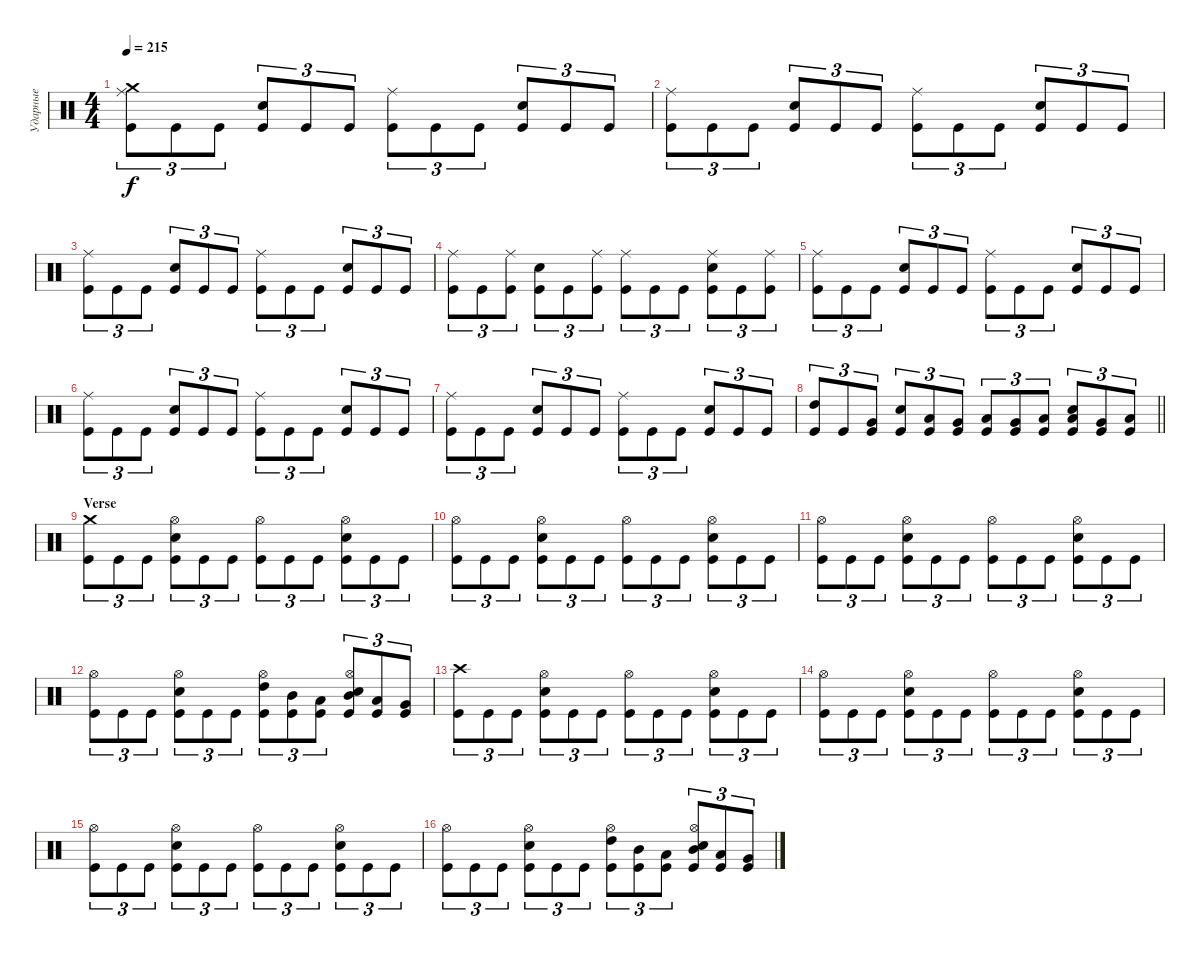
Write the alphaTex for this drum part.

\track ("Ударные" "Ударные") {instrument percussion}
\staff {score}
\articulation defaults
\ts (4 4)
\tempo 215
\clef neutral
\ks c
("Crash medium (hit)" "Ride (middle)" "Kick (hit)").8{tu (3 2) dy f} "Kick (hit)".8{tu (3 2)} "Kick (hit)".8{tu (3 2)} ("Electric Snare (hit)" "Kick (hit)").8{tu (3 2)} "Kick (hit)".8{tu (3 2)} "Kick (hit)".8{tu (3 2)} ("Ride (middle)" "Kick (hit)").8{tu (3 2)} "Kick (hit)".8{tu (3 2)} "Kick (hit)".8{tu (3 2)} ("Electric Snare (hit)" "Kick (hit)").8{tu (3 2)} "Kick (hit)".8{tu (3 2)} "Kick (hit)".8{tu (3 2)} |
("Ride (middle)" "Kick (hit)").8{tu (3 2)} "Kick (hit)".8{tu (3 2)} "Kick (hit)".8{tu (3 2)} ("Electric Snare (hit)" "Kick (hit)").8{tu (3 2)} "Kick (hit)".8{tu (3 2)} "Kick (hit)".8{tu (3 2)} ("Ride (middle)" "Kick (hit)").8{tu (3 2)} "Kick (hit)".8{tu (3 2)} "Kick (hit)".8{tu (3 2)} ("Electric Snare (hit)" "Kick (hit)").8{tu (3 2)} "Kick (hit)".8{tu (3 2)} "Kick (hit)".8{tu (3 2)} |
("Ride (middle)" "Kick (hit)").8{tu (3 2)} "Kick (hit)".8{tu (3 2)} "Kick (hit)".8{tu (3 2)} ("Electric Snare (hit)" "Kick (hit)").8{tu (3 2)} "Kick (hit)".8{tu (3 2)} "Kick (hit)".8{tu (3 2)} ("Ride (middle)" "Kick (hit)").8{tu (3 2)} "Kick (hit)".8{tu (3 2)} "Kick (hit)".8{tu (3 2)} ("Electric Snare (hit)" "Kick (hit)").8{tu (3 2)} "Kick (hit)".8{tu (3 2)} "Kick (hit)".8{tu (3 2)} |
("Ride (middle)" "Kick (hit)").8{tu (3 2)} "Kick (hit)".8{tu (3 2)} ("Ride (middle)" "Kick (hit)").8{tu (3 2)} ("Electric Snare (hit)" "Kick (hit)").8{tu (3 2)} "Kick (hit)".8{tu (3 2)} ("Ride (middle)" "Kick (hit)").8{tu (3 2)} ("Ride (middle)" "Kick (hit)").8{tu (3 2)} "Kick (hit)".8{tu (3 2)} "Kick (hit)".8{tu (3 2)} ("Ride (middle)" "Electric Snare (hit)" "Kick (hit)").8{tu (3 2)} "Kick (hit)".8{tu (3 2)} ("Ride (middle)" "Kick (hit)").8{tu (3 2)} |
("Ride (middle)" "Kick (hit)").8{tu (3 2)} "Kick (hit)".8{tu (3 2)} "Kick (hit)".8{tu (3 2)} ("Electric Snare (hit)" "Kick (hit)").8{tu (3 2)} "Kick (hit)".8{tu (3 2)} "Kick (hit)".8{tu (3 2)} ("Ride (middle)" "Kick (hit)").8{tu (3 2)} "Kick (hit)".8{tu (3 2)} "Kick (hit)".8{tu (3 2)} ("Electric Snare (hit)" "Kick (hit)").8{tu (3 2)} "Kick (hit)".8{tu (3 2)} "Kick (hit)".8{tu (3 2)} |
("Ride (middle)" "Kick (hit)").8{tu (3 2)} "Kick (hit)".8{tu (3 2)} "Kick (hit)".8{tu (3 2)} ("Electric Snare (hit)" "Kick (hit)").8{tu (3 2)} "Kick (hit)".8{tu (3 2)} "Kick (hit)".8{tu (3 2)} ("Ride (middle)" "Kick (hit)").8{tu (3 2)} "Kick (hit)".8{tu (3 2)} "Kick (hit)".8{tu (3 2)} ("Electric Snare (hit)" "Kick (hit)").8{tu (3 2)} "Kick (hit)".8{tu (3 2)} "Kick (hit)".8{tu (3 2)} |
("Ride (middle)" "Kick (hit)").8{tu (3 2)} "Kick (hit)".8{tu (3 2)} "Kick (hit)".8{tu (3 2)} ("Electric Snare (hit)" "Kick (hit)").8{tu (3 2)} "Kick (hit)".8{tu (3 2)} "Kick (hit)".8{tu (3 2)} ("Ride (middle)" "Kick (hit)").8{tu (3 2)} "Kick (hit)".8{tu (3 2)} "Kick (hit)".8{tu (3 2)} ("Electric Snare (hit)" "Kick (hit)").8{tu (3 2)} "Kick (hit)".8{tu (3 2)} "Kick (hit)".8{tu (3 2)} |
\barLineRight lightlight
("High Tom (hit)" "Kick (hit)").8{tu (3 2)} "Kick (hit)".8{tu (3 2)} ("Very Low Tom (hit)" "Kick (hit)").8{tu (3 2)} ("Electric Snare (hit)" "Kick (hit)").8{tu (3 2)} ("Low Tom (hit)" "Kick (hit)").8{tu (3 2)} ("Very Low Tom (hit)" "Kick (hit)").8{tu (3 2)} ("Low Tom (hit)" "Kick (hit)").8{tu (3 2)} ("Very Low Tom (hit)" "Kick (hit)").8{tu (3 2)} ("Low Floor Tom (hit)" "Kick (hit)").8{tu (3 2)} ("Low Tom (hit)" "Electric Snare (hit)" "Kick (hit)").8{tu (3 2)} ("Very Low Tom (hit)" "Kick (hit)").8{tu (3 2)} ("Low Floor Tom (hit)" "Kick (hit)").8{tu (3 2)} |
\section ("" "Verse")
("Crash medium (hit)" "Kick (hit)").8{tu (3 2)} "Kick (hit)".8{tu (3 2)} "Kick (hit)".8{tu (3 2)} ("Hi-Hat (open)" "Electric Snare (hit)" "Kick (hit)").8{tu (3 2)} "Kick (hit)".8{tu (3 2)} "Kick (hit)".8{tu (3 2)} ("Hi-Hat (open)" "Kick (hit)").8{tu (3 2)} "Kick (hit)".8{tu (3 2)} "Kick (hit)".8{tu (3 2)} ("Hi-Hat (open)" "Electric Snare (hit)" "Kick (hit)").8{tu (3 2)} "Kick (hit)".8{tu (3 2)} "Kick (hit)".8{tu (3 2)} |
("Hi-Hat (open)" "Kick (hit)").8{tu (3 2)} "Kick (hit)".8{tu (3 2)} "Kick (hit)".8{tu (3 2)} ("Hi-Hat (open)" "Electric Snare (hit)" "Kick (hit)").8{tu (3 2)} "Kick (hit)".8{tu (3 2)} "Kick (hit)".8{tu (3 2)} ("Hi-Hat (open)" "Kick (hit)").8{tu (3 2)} "Kick (hit)".8{tu (3 2)} "Kick (hit)".8{tu (3 2)} ("Hi-Hat (open)" "Electric Snare (hit)" "Kick (hit)").8{tu (3 2)} "Kick (hit)".8{tu (3 2)} "Kick (hit)".8{tu (3 2)} |
("Hi-Hat (open)" "Kick (hit)").8{tu (3 2)} "Kick (hit)".8{tu (3 2)} "Kick (hit)".8{tu (3 2)} ("Hi-Hat (open)" "Electric Snare (hit)" "Kick (hit)").8{tu (3 2)} "Kick (hit)".8{tu (3 2)} "Kick (hit)".8{tu (3 2)} ("Hi-Hat (open)" "Kick (hit)").8{tu (3 2)} "Kick (hit)".8{tu (3 2)} "Kick (hit)".8{tu (3 2)} ("Hi-Hat (open)" "Electric Snare (hit)" "Kick (hit)").8{tu (3 2)} "Kick (hit)".8{tu (3 2)} "Kick (hit)".8{tu (3 2)} |
("Hi-Hat (open)" "Kick (hit)").8{tu (3 2)} "Kick (hit)".8{tu (3 2)} "Kick (hit)".8{tu (3 2)} ("Hi-Hat (open)" "Electric Snare (hit)" "Kick (hit)").8{tu (3 2)} "Kick (hit)".8{tu (3 2)} "Kick (hit)".8{tu (3 2)} ("High Tom (hit)" "Hi-Hat (open)" "Kick (hit)").8{tu (3 2)} ("Mid Tom (hit)" "Kick (hit)").8{tu (3 2)} ("Low Tom (hit)" "Kick (hit)").8{tu (3 2)} ("Mid Tom (hit)" "Hi-Hat (open)" "Electric Snare (hit)" "Kick (hit)").8{tu (3 2)} ("Low Tom (hit)" "Kick (hit)").8{tu (3 2)} ("Very Low Tom (hit)" "Kick (hit)").8{tu (3 2)} |
("Crash high (hit)" "Kick (hit)").8{tu (3 2)} "Kick (hit)".8{tu (3 2)} "Kick (hit)".8{tu (3 2)} ("Hi-Hat (open)" "Electric Snare (hit)" "Kick (hit)").8{tu (3 2)} "Kick (hit)".8{tu (3 2)} "Kick (hit)".8{tu (3 2)} ("Hi-Hat (open)" "Kick (hit)").8{tu (3 2)} "Kick (hit)".8{tu (3 2)} "Kick (hit)".8{tu (3 2)} ("Hi-Hat (open)" "Electric Snare (hit)" "Kick (hit)").8{tu (3 2)} "Kick (hit)".8{tu (3 2)} "Kick (hit)".8{tu (3 2)} |
("Hi-Hat (open)" "Kick (hit)").8{tu (3 2)} "Kick (hit)".8{tu (3 2)} "Kick (hit)".8{tu (3 2)} ("Hi-Hat (open)" "Electric Snare (hit)" "Kick (hit)").8{tu (3 2)} "Kick (hit)".8{tu (3 2)} "Kick (hit)".8{tu (3 2)} ("Hi-Hat (open)" "Kick (hit)").8{tu (3 2)} "Kick (hit)".8{tu (3 2)} "Kick (hit)".8{tu (3 2)} ("Hi-Hat (open)" "Electric Snare (hit)" "Kick (hit)").8{tu (3 2)} "Kick (hit)".8{tu (3 2)} "Kick (hit)".8{tu (3 2)} |
("Hi-Hat (open)" "Kick (hit)").8{tu (3 2)} "Kick (hit)".8{tu (3 2)} "Kick (hit)".8{tu (3 2)} ("Hi-Hat (open)" "Electric Snare (hit)" "Kick (hit)").8{tu (3 2)} "Kick (hit)".8{tu (3 2)} "Kick (hit)".8{tu (3 2)} ("Hi-Hat (open)" "Kick (hit)").8{tu (3 2)} "Kick (hit)".8{tu (3 2)} "Kick (hit)".8{tu (3 2)} ("Hi-Hat (open)" "Electric Snare (hit)" "Kick (hit)").8{tu (3 2)} "Kick (hit)".8{tu (3 2)} "Kick (hit)".8{tu (3 2)} |
("Hi-Hat (open)" "Kick (hit)").8{tu (3 2)} "Kick (hit)".8{tu (3 2)} "Kick (hit)".8{tu (3 2)} ("Hi-Hat (open)" "Electric Snare (hit)" "Kick (hit)").8{tu (3 2)} "Kick (hit)".8{tu (3 2)} "Kick (hit)".8{tu (3 2)} ("High Tom (hit)" "Hi-Hat (open)" "Kick (hit)").8{tu (3 2)} ("Mid Tom (hit)" "Kick (hit)").8{tu (3 2)} ("Low Tom (hit)" "Kick (hit)").8{tu (3 2)} ("Mid Tom (hit)" "Hi-Hat (open)" "Electric Snare (hit)" "Kick (hit)").8{tu (3 2)} ("Low Tom (hit)" "Kick (hit)").8{tu (3 2)} ("Very Low Tom (hit)" "Kick (hit)").8{tu (3 2)}
